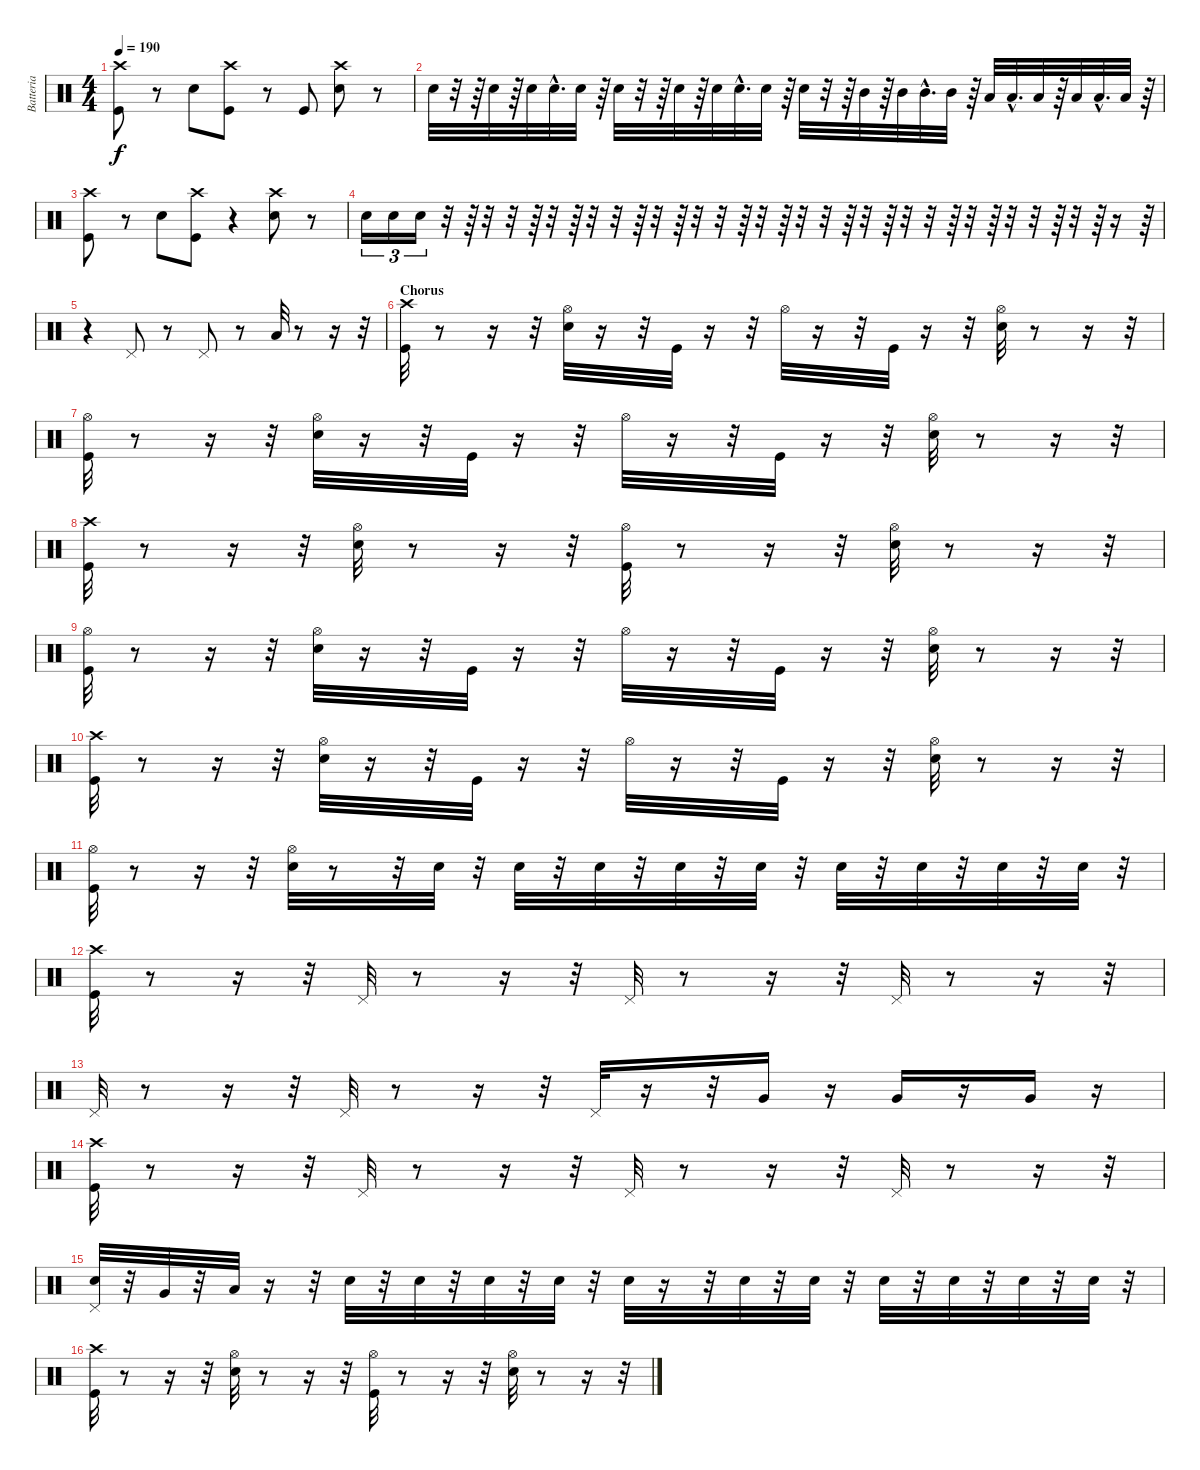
\track ("Batteria" "Batteria") {instrument percussion}
\staff {score}
\articulation defaults
\ts (4 4)
\tempo 190
\clef neutral
\ks c
("Crash high (hit)" "Kick (hit)").8{dy f} r.8 "Snare (hit) 2".8 ("Crash high (hit)" "Kick (hit)").8 r.8 "Kick (hit)".8 ("Snare (hit) 2" "Crash high (hit)").8 r.8 |
"Snare (hit) 2".32 r.32 r.64 "Snare (hit) 2".32 r.64 "Snare (hit) 2".32 "Snare (hit) 2"{hac}.32{d} "Snare (hit) 2".32 r.64 "Snare (hit) 2".32 r.32 r.64 "Snare (hit) 2".32 r.64 "Snare (hit) 2".32 "Snare (hit) 2"{hac}.32{d} "Snare (hit) 2".32 r.64 "Snare (hit) 2".32 r.32 r.64 "Mid Tom (hit)".32 r.64 "Mid Tom (hit)".32 "Mid Tom (hit)"{hac}.32{d} "Mid Tom (hit)".32 r.64 "Low Tom (hit)".32 "Low Tom (hit)"{hac}.32{d} "Low Tom (hit)".32 r.64 "Low Tom (hit)".32 "Low Tom (hit)"{hac}.32{d} "Low Tom (hit)".32 r.64 |
("Crash high (hit)" "Kick (hit)").8 r.8 "Snare (hit) 2".8 ("Kick (hit)" "Crash high (hit)").8 r.4 ("Snare (hit) 2" "Crash high (hit)").8 r.8 |
"Snare (hit) 2".16{tu (3 2)} "Snare (hit) 2".16{tu (3 2)} "Snare (hit) 2".16{tu (3 2)} r.32 r.64 r.32 r.32 r.64 r.32 r.64 r.32 r.32 r.64 r.32 r.64 r.32 r.32 r.64 r.32 r.64 r.32 r.32 r.64 r.32 r.64 r.32 r.32 r.64 r.32 r.64 r.32 r.32 r.64 r.32 r.64 r.16 r.64 |
r.4 "Pedal Hi-Hat (hit)".8 r.8 "Pedal Hi-Hat (hit)".8 r.8 "Low Tom (hit)".32 r.8 r.16 r.32 |
\section ("" "Chorus")
("Crash high (hit)" "Kick (hit)").32 r.8 r.16 r.32 ("Snare (hit) 2" "Hi-Hat (open)").32 r.16 r.32 "Kick (hit)".32 r.16 r.32 "Hi-Hat (open)".32 r.16 r.32 "Kick (hit)".32 r.16 r.32 ("Snare (hit) 2" "Hi-Hat (open)").32 r.8 r.16 r.32 |
("Kick (hit)" "Hi-Hat (open)").32 r.8 r.16 r.32 ("Hi-Hat (open)" "Snare (hit) 2").32 r.16 r.32 "Kick (hit)".32 r.16 r.32 "Hi-Hat (open)".32 r.16 r.32 "Kick (hit)".32 r.16 r.32 ("Hi-Hat (open)" "Snare (hit) 2").32 r.8 r.16 r.32 |
("Kick (hit)" "Crash high (hit)").32 r.8 r.16 r.32 ("Snare (hit) 2" "Hi-Hat (open)").32 r.8 r.16 r.32 ("Hi-Hat (open)" "Kick (hit)").32 r.8 r.16 r.32 ("Snare (hit) 2" "Hi-Hat (open)").32 r.8 r.16 r.32 |
("Hi-Hat (open)" "Kick (hit)").32 r.8 r.16 r.32 ("Hi-Hat (open)" "Snare (hit) 2").32 r.16 r.32 "Kick (hit)".32 r.16 r.32 "Hi-Hat (open)".32 r.16 r.32 "Kick (hit)".32 r.16 r.32 ("Snare (hit) 2" "Hi-Hat (open)").32 r.8 r.16 r.32 |
("Kick (hit)" "Crash high (hit)").32 r.8 r.16 r.32 ("Snare (hit) 2" "Hi-Hat (open)").32 r.16 r.32 "Kick (hit)".32 r.16 r.32 "Hi-Hat (open)".32 r.16 r.32 "Kick (hit)".32 r.16 r.32 ("Snare (hit) 2" "Hi-Hat (open)").32 r.8 r.16 r.32 |
("Kick (hit)" "Hi-Hat (open)").32 r.8 r.16 r.32 ("Snare (hit) 2" "Hi-Hat (open)").32 r.8 r.32 "Snare (hit) 2".32 r.32 "Snare (hit) 2".32 r.32 "Snare (hit) 2".32 r.32 "Snare (hit) 2".32 r.32 "Snare (hit) 2".32 r.32 "Snare (hit) 2".32 r.32 "Snare (hit) 2".32 r.32 "Snare (hit) 2".32 r.32 "Snare (hit) 2".32 r.32 |
("Kick (hit)" "Crash high (hit)").32 r.8 r.16 r.32 "Pedal Hi-Hat (hit)".32 r.8 r.16 r.32 "Pedal Hi-Hat (hit)".32 r.8 r.16 r.32 "Pedal Hi-Hat (hit)".32 r.8 r.16 r.32 |
"Pedal Hi-Hat (hit)".32 r.8 r.16 r.32 "Pedal Hi-Hat (hit)".32 r.8 r.16 r.32 "Pedal Hi-Hat (hit)".32 r.16 r.32 "Very Low Tom (hit)".16 r.16 "Very Low Tom (hit)".16 r.16 "Very Low Tom (hit)".16 r.16 |
("Kick (hit)" "Crash high (hit)").32 r.8 r.16 r.32 "Pedal Hi-Hat (hit)".32 r.8 r.16 r.32 "Pedal Hi-Hat (hit)".32 r.8 r.16 r.32 "Pedal Hi-Hat (hit)".32 r.8 r.16 r.32 |
("Snare (hit) 2" "Pedal Hi-Hat (hit)").32 r.32 "Very Low Tom (hit)".32 r.32 "Low Floor Tom (hit)".32 r.16 r.32 "Snare (hit) 2".32 r.32 "Snare (hit) 2".32 r.32 "Snare (hit) 2".32 r.32 "Snare (hit) 2".32 r.32 "Snare (hit) 2".32 r.16 r.32 "Snare (hit) 2".32 r.32 "Snare (hit) 2".32 r.32 "Snare (hit) 2".32 r.32 "Snare (hit) 2".32 r.32 "Snare (hit) 2".32 r.32 "Snare (hit) 2".32 r.32 |
("Kick (hit)" "Crash high (hit)").32 r.8 r.16 r.32 ("Hi-Hat (open)" "Snare (hit) 2").32 r.8 r.16 r.32 ("Hi-Hat (open)" "Kick (hit)").32 r.8 r.16 r.32 ("Snare (hit) 2" "Hi-Hat (open)").32 r.8 r.16 r.32
